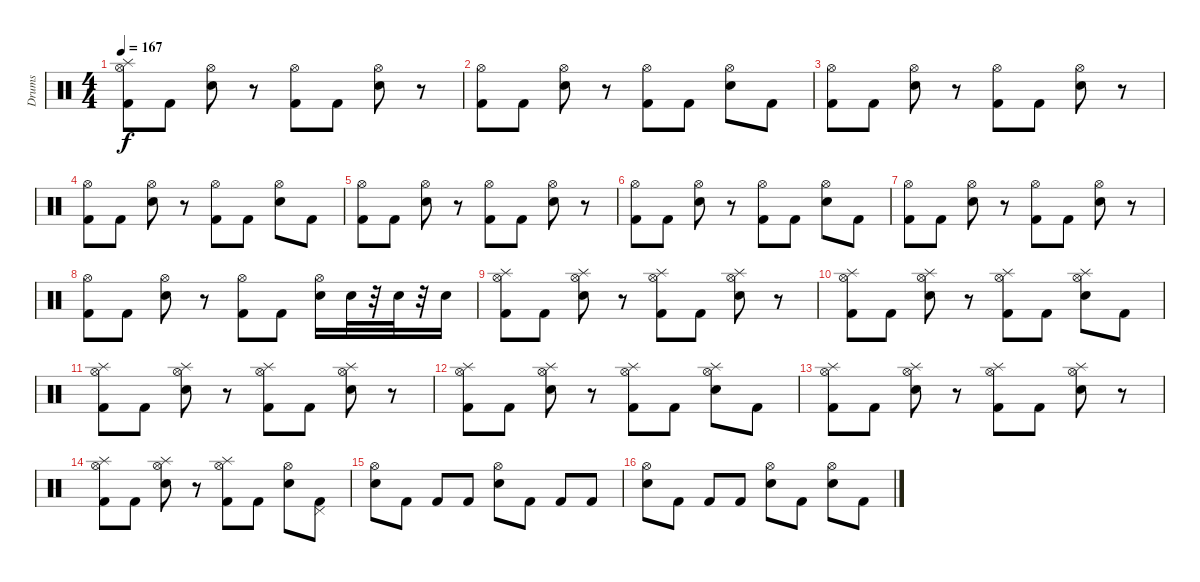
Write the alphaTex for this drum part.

\track ("Drums" "Drums") {instrument percussion}
\staff {score}
\articulation defaults
\ts (4 4)
\tempo 167
\clef neutral
\ks c
("Hi-Hat (open)" "Kick (hit) 2" "Splash (hit)").8{dy f} "Kick (hit) 2".8 ("Hi-Hat (open)" "Electric Snare (hit)").8 r.8 ("Hi-Hat (open)" "Kick (hit) 2").8 "Kick (hit) 2".8 ("Hi-Hat (open)" "Electric Snare (hit)").8 r.8 |
("Hi-Hat (open)" "Kick (hit) 2").8 "Kick (hit) 2".8 ("Hi-Hat (open)" "Electric Snare (hit)").8 r.8 ("Hi-Hat (open)" "Kick (hit) 2").8 "Kick (hit) 2".8 ("Hi-Hat (open)" "Electric Snare (hit)").8 "Kick (hit) 2".8 |
("Hi-Hat (open)" "Kick (hit) 2").8 "Kick (hit) 2".8 ("Hi-Hat (open)" "Electric Snare (hit)").8 r.8 ("Hi-Hat (open)" "Kick (hit) 2").8 "Kick (hit) 2".8 ("Hi-Hat (open)" "Electric Snare (hit)").8 r.8 |
("Hi-Hat (open)" "Kick (hit) 2").8 "Kick (hit) 2".8 ("Hi-Hat (open)" "Electric Snare (hit)").8 r.8 ("Hi-Hat (open)" "Kick (hit) 2").8 "Kick (hit) 2".8 ("Hi-Hat (open)" "Electric Snare (hit)").8 "Kick (hit) 2".8 |
("Hi-Hat (open)" "Kick (hit) 2").8 "Kick (hit) 2".8 ("Hi-Hat (open)" "Electric Snare (hit)").8 r.8 ("Hi-Hat (open)" "Kick (hit) 2").8 "Kick (hit) 2".8 ("Hi-Hat (open)" "Electric Snare (hit)").8 r.8 |
("Hi-Hat (open)" "Kick (hit) 2").8 "Kick (hit) 2".8 ("Hi-Hat (open)" "Electric Snare (hit)").8 r.8 ("Hi-Hat (open)" "Kick (hit) 2").8 "Kick (hit) 2".8 ("Hi-Hat (open)" "Electric Snare (hit)").8 "Kick (hit) 2".8 |
("Hi-Hat (open)" "Kick (hit) 2").8 "Kick (hit) 2".8 ("Hi-Hat (open)" "Electric Snare (hit)").8 r.8 ("Hi-Hat (open)" "Kick (hit) 2").8 "Kick (hit) 2".8 ("Hi-Hat (open)" "Electric Snare (hit)").8 r.8 |
("Hi-Hat (open)" "Kick (hit) 2").8 "Kick (hit) 2".8 ("Hi-Hat (open)" "Electric Snare (hit)").8 r.8 ("Hi-Hat (open)" "Kick (hit) 2").8 "Kick (hit) 2".8 ("Hi-Hat (open)" "Electric Snare (hit)").16 "Electric Snare (hit)".32 r.32 "Electric Snare (hit)".32 r.32 "Electric Snare (hit)".16 |
("Kick (hit) 2" "Splash (hit)" "Hi-Hat (open)").8 "Kick (hit) 2".8 ("Electric Snare (hit)" "Splash (hit)" "Hi-Hat (open)").8 r.8 ("Kick (hit) 2" "Splash (hit)" "Hi-Hat (open)").8 "Kick (hit) 2".8 ("Electric Snare (hit)" "Splash (hit)" "Hi-Hat (open)").8 r.8 |
("Hi-Hat (open)" "Kick (hit) 2" "Splash (hit)").8 "Kick (hit) 2".8 ("Hi-Hat (open)" "Electric Snare (hit)" "Splash (hit)").8 r.8 ("Hi-Hat (open)" "Kick (hit) 2" "Splash (hit)").8 "Kick (hit) 2".8 ("Hi-Hat (open)" "Electric Snare (hit)" "Splash (hit)").8 "Kick (hit) 2".8 |
("Kick (hit) 2" "Splash (hit)" "Hi-Hat (open)").8 "Kick (hit) 2".8 ("Electric Snare (hit)" "Splash (hit)" "Hi-Hat (open)").8 r.8 ("Kick (hit) 2" "Splash (hit)" "Hi-Hat (open)").8 "Kick (hit) 2".8 ("Electric Snare (hit)" "Splash (hit)" "Hi-Hat (open)").8 r.8 |
("Hi-Hat (open)" "Kick (hit) 2" "Splash (hit)").8 "Kick (hit) 2".8 ("Hi-Hat (open)" "Electric Snare (hit)" "Splash (hit)").8 r.8 ("Hi-Hat (open)" "Kick (hit) 2" "Splash (hit)").8 "Kick (hit) 2".8 ("Hi-Hat (open)" "Electric Snare (hit)" "Splash (hit)").8 "Kick (hit) 2".8 |
("Kick (hit) 2" "Splash (hit)" "Hi-Hat (open)").8 "Kick (hit) 2".8 ("Electric Snare (hit)" "Splash (hit)" "Hi-Hat (open)").8 r.8 ("Kick (hit) 2" "Splash (hit)" "Hi-Hat (open)").8 "Kick (hit) 2".8 ("Electric Snare (hit)" "Splash (hit)" "Hi-Hat (open)").8 r.8 |
("Hi-Hat (open)" "Kick (hit) 2" "Splash (hit)").8 "Kick (hit) 2".8 ("Hi-Hat (open)" "Electric Snare (hit)" "Splash (hit)").8 r.8 ("Hi-Hat (open)" "Kick (hit) 2" "Splash (hit)").8 "Kick (hit) 2".8 ("Electric Snare (hit)" "Hi-Hat (open)").8 ("Kick (hit) 2" "Pedal Hi-Hat (hit)").8 |
("Electric Snare (hit)" "Hi-Hat (open)").8 "Kick (hit) 2".8 "Kick (hit) 2".8 "Kick (hit) 2".8 ("Electric Snare (hit)" "Hi-Hat (open)").8 "Kick (hit) 2".8 "Kick (hit) 2".8 "Kick (hit) 2".8 |
("Electric Snare (hit)" "Hi-Hat (open)").8 "Kick (hit) 2".8 "Kick (hit) 2".8 "Kick (hit) 2".8 ("Electric Snare (hit)" "Hi-Hat (open)").8 "Kick (hit) 2".8 ("Electric Snare (hit)" "Hi-Hat (open)").8 "Kick (hit) 2".8
